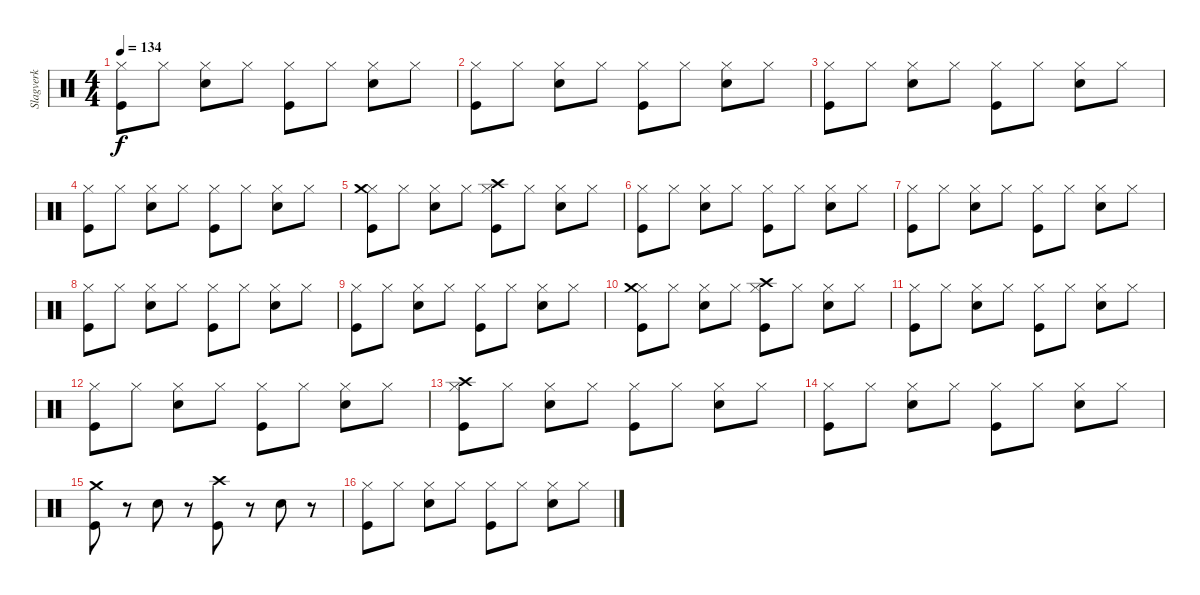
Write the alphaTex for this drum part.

\track ("Slagverk" "Slagverk") {instrument percussion}
\staff
\articulation defaults
\ts (4 4)
\tempo 134
\clef neutral
\ks c
("Hi-Hat (closed)" "Kick (hit)").8{dy f} "Hi-Hat (closed)".8 ("Hi-Hat (closed)" "Electric Snare (hit)").8 "Hi-Hat (closed)".8 ("Hi-Hat (closed)" "Kick (hit)").8 "Hi-Hat (closed)".8 ("Hi-Hat (closed)" "Electric Snare (hit)").8 "Hi-Hat (closed)".8 |
("Hi-Hat (closed)" "Kick (hit)").8 "Hi-Hat (closed)".8 ("Hi-Hat (closed)" "Electric Snare (hit)").8 "Hi-Hat (closed)".8 ("Hi-Hat (closed)" "Kick (hit)").8 "Hi-Hat (closed)".8 ("Hi-Hat (closed)" "Electric Snare (hit)").8 "Hi-Hat (closed)".8 |
("Hi-Hat (closed)" "Kick (hit)").8 "Hi-Hat (closed)".8 ("Hi-Hat (closed)" "Electric Snare (hit)").8 "Hi-Hat (closed)".8 ("Hi-Hat (closed)" "Kick (hit)").8 "Hi-Hat (closed)".8 ("Hi-Hat (closed)" "Electric Snare (hit)").8 "Hi-Hat (closed)".8 |
("Hi-Hat (closed)" "Kick (hit)").8 "Hi-Hat (closed)".8 ("Hi-Hat (closed)" "Electric Snare (hit)").8 "Hi-Hat (closed)".8 ("Hi-Hat (closed)" "Kick (hit)").8 "Hi-Hat (closed)".8 ("Hi-Hat (closed)" "Electric Snare (hit)").8 "Hi-Hat (closed)".8 |
("Hi-Hat (closed)" "Crash medium (hit)" "Kick (hit)").8 "Hi-Hat (closed)".8 ("Hi-Hat (closed)" "Electric Snare (hit)").8 "Hi-Hat (closed)".8 ("Hi-Hat (closed)" "Crash high (hit)" "Kick (hit)").8 "Hi-Hat (closed)".8 ("Hi-Hat (closed)" "Electric Snare (hit)").8 "Hi-Hat (closed)".8 |
("Hi-Hat (closed)" "Kick (hit)").8 "Hi-Hat (closed)".8 ("Hi-Hat (closed)" "Electric Snare (hit)").8 "Hi-Hat (closed)".8 ("Hi-Hat (closed)" "Kick (hit)").8 "Hi-Hat (closed)".8 ("Hi-Hat (closed)" "Electric Snare (hit)").8 "Hi-Hat (closed)".8 |
("Hi-Hat (closed)" "Kick (hit)").8 "Hi-Hat (closed)".8 ("Hi-Hat (closed)" "Electric Snare (hit)").8 "Hi-Hat (closed)".8 ("Hi-Hat (closed)" "Kick (hit)").8 "Hi-Hat (closed)".8 ("Hi-Hat (closed)" "Electric Snare (hit)").8 "Hi-Hat (closed)".8 |
("Hi-Hat (closed)" "Kick (hit)").8 "Hi-Hat (closed)".8 ("Hi-Hat (closed)" "Electric Snare (hit)").8 "Hi-Hat (closed)".8 ("Hi-Hat (closed)" "Kick (hit)").8 "Hi-Hat (closed)".8 ("Hi-Hat (closed)" "Electric Snare (hit)").8 "Hi-Hat (closed)".8 |
("Hi-Hat (closed)" "Kick (hit)").8 "Hi-Hat (closed)".8 ("Hi-Hat (closed)" "Electric Snare (hit)").8 "Hi-Hat (closed)".8 ("Hi-Hat (closed)" "Kick (hit)").8 "Hi-Hat (closed)".8 ("Hi-Hat (closed)" "Electric Snare (hit)").8 "Hi-Hat (closed)".8 |
("Hi-Hat (closed)" "Crash medium (hit)" "Kick (hit)").8 "Hi-Hat (closed)".8 ("Hi-Hat (closed)" "Electric Snare (hit)").8 "Hi-Hat (closed)".8 ("Hi-Hat (closed)" "Crash high (hit)" "Kick (hit)").8 "Hi-Hat (closed)".8 ("Hi-Hat (closed)" "Electric Snare (hit)").8 "Hi-Hat (closed)".8 |
("Hi-Hat (closed)" "Kick (hit)").8 "Hi-Hat (closed)".8 ("Hi-Hat (closed)" "Electric Snare (hit)").8 "Hi-Hat (closed)".8 ("Hi-Hat (closed)" "Kick (hit)").8 "Hi-Hat (closed)".8 ("Hi-Hat (closed)" "Electric Snare (hit)").8 "Hi-Hat (closed)".8 |
("Hi-Hat (closed)" "Kick (hit)").8 "Hi-Hat (closed)".8 ("Hi-Hat (closed)" "Electric Snare (hit)").8 "Hi-Hat (closed)".8 ("Hi-Hat (closed)" "Kick (hit)").8 "Hi-Hat (closed)".8 ("Hi-Hat (closed)" "Electric Snare (hit)").8 "Hi-Hat (closed)".8 |
("Hi-Hat (closed)" "Crash high (hit)" "Kick (hit)").8 "Hi-Hat (closed)".8 ("Hi-Hat (closed)" "Electric Snare (hit)").8 "Hi-Hat (closed)".8 ("Hi-Hat (closed)" "Kick (hit)").8 "Hi-Hat (closed)".8 ("Hi-Hat (closed)" "Electric Snare (hit)").8 "Hi-Hat (closed)".8 |
("Hi-Hat (closed)" "Kick (hit)").8 "Hi-Hat (closed)".8 ("Hi-Hat (closed)" "Electric Snare (hit)").8 "Hi-Hat (closed)".8 ("Hi-Hat (closed)" "Kick (hit)").8 "Hi-Hat (closed)".8 ("Hi-Hat (closed)" "Electric Snare (hit)").8 "Hi-Hat (closed)".8 |
("Crash medium (hit)" "Kick (hit)").8 r.8 "Electric Snare (hit)".8 r.8 ("Crash high (hit)" "Kick (hit)").8 r.8 "Electric Snare (hit)".8 r.8 |
("Hi-Hat (closed)" "Kick (hit)").8 "Hi-Hat (closed)".8 ("Hi-Hat (closed)" "Electric Snare (hit)").8 "Hi-Hat (closed)".8 ("Hi-Hat (closed)" "Kick (hit)").8 "Hi-Hat (closed)".8 ("Hi-Hat (closed)" "Electric Snare (hit)").8 "Hi-Hat (closed)".8
